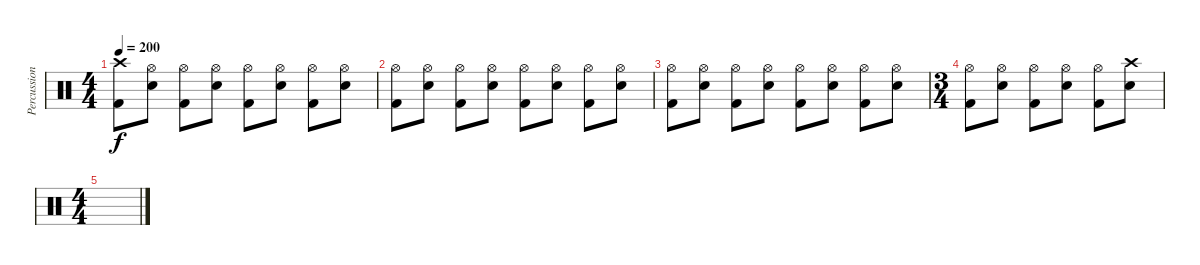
\track ("Percussions" "Percussion") {instrument percussion}
\staff {score}
\articulation defaults
\ts (4 4)
\tempo 200
\clef neutral
\ks c
("Crash high (hit)" "Kick (hit) 2").8{dy f} ("Hi-Hat (open)" "Electric Snare (hit)").8 ("Hi-Hat (open)" "Kick (hit) 2").8 ("Hi-Hat (open)" "Electric Snare (hit)").8 ("Hi-Hat (open)" "Kick (hit) 2").8 ("Hi-Hat (open)" "Electric Snare (hit)").8 ("Hi-Hat (open)" "Kick (hit) 2").8 ("Hi-Hat (open)" "Electric Snare (hit)").8 |
("Hi-Hat (open)" "Kick (hit) 2").8 ("Hi-Hat (open)" "Electric Snare (hit)").8 ("Hi-Hat (open)" "Kick (hit) 2").8 ("Hi-Hat (open)" "Electric Snare (hit)").8 ("Hi-Hat (open)" "Kick (hit) 2").8 ("Hi-Hat (open)" "Electric Snare (hit)").8 ("Hi-Hat (open)" "Kick (hit) 2").8 ("Hi-Hat (open)" "Electric Snare (hit)").8 |
("Hi-Hat (open)" "Kick (hit) 2").8 ("Hi-Hat (open)" "Electric Snare (hit)").8 ("Hi-Hat (open)" "Kick (hit) 2").8 ("Hi-Hat (open)" "Electric Snare (hit)").8 ("Hi-Hat (open)" "Kick (hit) 2").8 ("Hi-Hat (open)" "Electric Snare (hit)").8 ("Hi-Hat (open)" "Kick (hit) 2").8 ("Hi-Hat (open)" "Electric Snare (hit)").8 |
\ts (3 4)
("Hi-Hat (open)" "Kick (hit) 2").8 ("Hi-Hat (open)" "Electric Snare (hit)").8 ("Hi-Hat (open)" "Kick (hit) 2").8 ("Hi-Hat (open)" "Electric Snare (hit)").8 ("Hi-Hat (open)" "Kick (hit) 2").8 ("Crash high (hit)" "Electric Snare (hit)").8 |
\ts (4 4)
